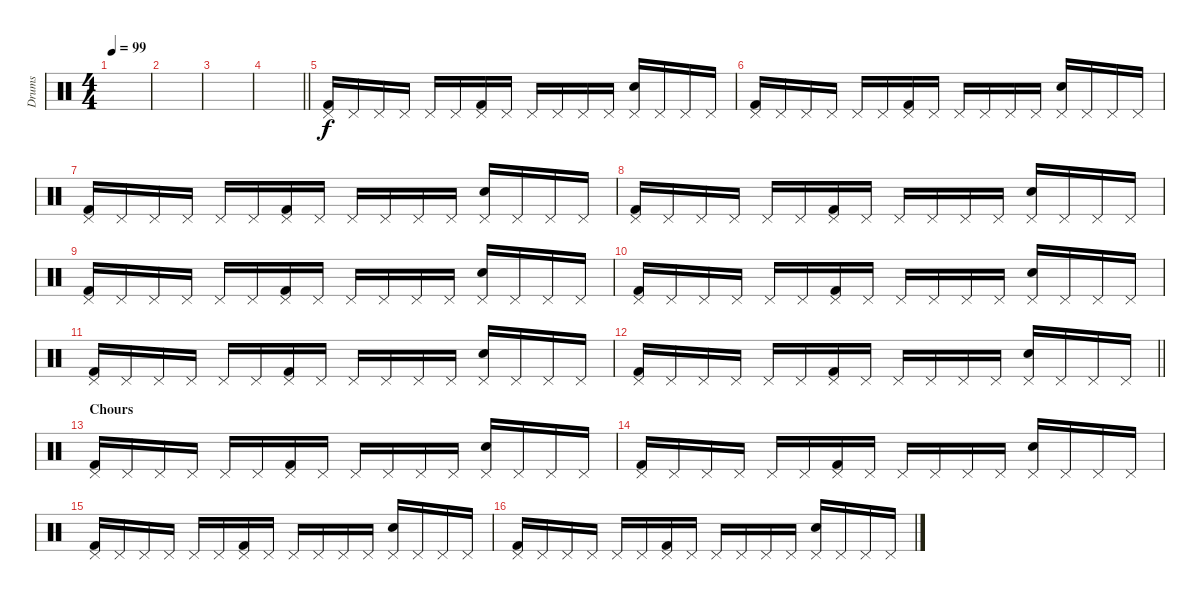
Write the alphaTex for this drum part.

\track ("Drums" "Drums") {instrument percussion}
\staff {score}
\articulation defaults
\ts (4 4)
\tempo 99
\clef neutral
\ks c
|
|
|
\barLineRight lightlight
|
("Pedal Hi-Hat (hit)" "Kick (hit) 2").16 "Pedal Hi-Hat (hit)".16 "Pedal Hi-Hat (hit)".16 "Pedal Hi-Hat (hit)".16 "Pedal Hi-Hat (hit)".16 "Pedal Hi-Hat (hit)".16 ("Pedal Hi-Hat (hit)" "Kick (hit) 2").16 "Pedal Hi-Hat (hit)".16 "Pedal Hi-Hat (hit)".16 "Pedal Hi-Hat (hit)".16 "Pedal Hi-Hat (hit)".16 "Pedal Hi-Hat (hit)".16 ("Pedal Hi-Hat (hit)" "Snare (hit) 2").16 "Pedal Hi-Hat (hit)".16 "Pedal Hi-Hat (hit)".16 "Pedal Hi-Hat (hit)".16 |
("Pedal Hi-Hat (hit)" "Kick (hit) 2").16 "Pedal Hi-Hat (hit)".16 "Pedal Hi-Hat (hit)".16 "Pedal Hi-Hat (hit)".16 "Pedal Hi-Hat (hit)".16 "Pedal Hi-Hat (hit)".16 ("Pedal Hi-Hat (hit)" "Kick (hit) 2").16 "Pedal Hi-Hat (hit)".16 "Pedal Hi-Hat (hit)".16 "Pedal Hi-Hat (hit)".16 "Pedal Hi-Hat (hit)".16 "Pedal Hi-Hat (hit)".16 ("Pedal Hi-Hat (hit)" "Snare (hit) 2").16 "Pedal Hi-Hat (hit)".16 "Pedal Hi-Hat (hit)".16 "Pedal Hi-Hat (hit)".16 |
("Pedal Hi-Hat (hit)" "Kick (hit) 2").16 "Pedal Hi-Hat (hit)".16 "Pedal Hi-Hat (hit)".16 "Pedal Hi-Hat (hit)".16 "Pedal Hi-Hat (hit)".16 "Pedal Hi-Hat (hit)".16 ("Pedal Hi-Hat (hit)" "Kick (hit) 2").16 "Pedal Hi-Hat (hit)".16 "Pedal Hi-Hat (hit)".16 "Pedal Hi-Hat (hit)".16 "Pedal Hi-Hat (hit)".16 "Pedal Hi-Hat (hit)".16 ("Pedal Hi-Hat (hit)" "Snare (hit) 2").16 "Pedal Hi-Hat (hit)".16 "Pedal Hi-Hat (hit)".16 "Pedal Hi-Hat (hit)".16 |
("Pedal Hi-Hat (hit)" "Kick (hit) 2").16 "Pedal Hi-Hat (hit)".16 "Pedal Hi-Hat (hit)".16 "Pedal Hi-Hat (hit)".16 "Pedal Hi-Hat (hit)".16 "Pedal Hi-Hat (hit)".16 ("Pedal Hi-Hat (hit)" "Kick (hit) 2").16 "Pedal Hi-Hat (hit)".16 "Pedal Hi-Hat (hit)".16 "Pedal Hi-Hat (hit)".16 "Pedal Hi-Hat (hit)".16 "Pedal Hi-Hat (hit)".16 ("Pedal Hi-Hat (hit)" "Snare (hit) 2").16 "Pedal Hi-Hat (hit)".16 "Pedal Hi-Hat (hit)".16 "Pedal Hi-Hat (hit)".16 |
("Pedal Hi-Hat (hit)" "Kick (hit) 2").16 "Pedal Hi-Hat (hit)".16 "Pedal Hi-Hat (hit)".16 "Pedal Hi-Hat (hit)".16 "Pedal Hi-Hat (hit)".16 "Pedal Hi-Hat (hit)".16 ("Pedal Hi-Hat (hit)" "Kick (hit) 2").16 "Pedal Hi-Hat (hit)".16 "Pedal Hi-Hat (hit)".16 "Pedal Hi-Hat (hit)".16 "Pedal Hi-Hat (hit)".16 "Pedal Hi-Hat (hit)".16 ("Pedal Hi-Hat (hit)" "Snare (hit) 2").16 "Pedal Hi-Hat (hit)".16 "Pedal Hi-Hat (hit)".16 "Pedal Hi-Hat (hit)".16 |
("Pedal Hi-Hat (hit)" "Kick (hit) 2").16 "Pedal Hi-Hat (hit)".16 "Pedal Hi-Hat (hit)".16 "Pedal Hi-Hat (hit)".16 "Pedal Hi-Hat (hit)".16 "Pedal Hi-Hat (hit)".16 ("Pedal Hi-Hat (hit)" "Kick (hit) 2").16 "Pedal Hi-Hat (hit)".16 "Pedal Hi-Hat (hit)".16 "Pedal Hi-Hat (hit)".16 "Pedal Hi-Hat (hit)".16 "Pedal Hi-Hat (hit)".16 ("Pedal Hi-Hat (hit)" "Snare (hit) 2").16 "Pedal Hi-Hat (hit)".16 "Pedal Hi-Hat (hit)".16 "Pedal Hi-Hat (hit)".16 |
("Pedal Hi-Hat (hit)" "Kick (hit) 2").16 "Pedal Hi-Hat (hit)".16 "Pedal Hi-Hat (hit)".16 "Pedal Hi-Hat (hit)".16 "Pedal Hi-Hat (hit)".16 "Pedal Hi-Hat (hit)".16 ("Pedal Hi-Hat (hit)" "Kick (hit) 2").16 "Pedal Hi-Hat (hit)".16 "Pedal Hi-Hat (hit)".16 "Pedal Hi-Hat (hit)".16 "Pedal Hi-Hat (hit)".16 "Pedal Hi-Hat (hit)".16 ("Pedal Hi-Hat (hit)" "Snare (hit) 2").16 "Pedal Hi-Hat (hit)".16 "Pedal Hi-Hat (hit)".16 "Pedal Hi-Hat (hit)".16 |
\barLineRight lightlight
("Pedal Hi-Hat (hit)" "Kick (hit) 2").16 "Pedal Hi-Hat (hit)".16 "Pedal Hi-Hat (hit)".16 "Pedal Hi-Hat (hit)".16 "Pedal Hi-Hat (hit)".16 "Pedal Hi-Hat (hit)".16 ("Pedal Hi-Hat (hit)" "Kick (hit) 2").16 "Pedal Hi-Hat (hit)".16 "Pedal Hi-Hat (hit)".16 "Pedal Hi-Hat (hit)".16 "Pedal Hi-Hat (hit)".16 "Pedal Hi-Hat (hit)".16 ("Pedal Hi-Hat (hit)" "Snare (hit) 2").16 "Pedal Hi-Hat (hit)".16 "Pedal Hi-Hat (hit)".16 "Pedal Hi-Hat (hit)".16 |
\section ("" "Chours")
("Pedal Hi-Hat (hit)" "Kick (hit) 2").16 "Pedal Hi-Hat (hit)".16 "Pedal Hi-Hat (hit)".16 "Pedal Hi-Hat (hit)".16 "Pedal Hi-Hat (hit)".16 "Pedal Hi-Hat (hit)".16 ("Pedal Hi-Hat (hit)" "Kick (hit) 2").16 "Pedal Hi-Hat (hit)".16 "Pedal Hi-Hat (hit)".16 "Pedal Hi-Hat (hit)".16 "Pedal Hi-Hat (hit)".16 "Pedal Hi-Hat (hit)".16 ("Pedal Hi-Hat (hit)" "Snare (hit) 2").16 "Pedal Hi-Hat (hit)".16 "Pedal Hi-Hat (hit)".16 "Pedal Hi-Hat (hit)".16 |
("Pedal Hi-Hat (hit)" "Kick (hit) 2").16 "Pedal Hi-Hat (hit)".16 "Pedal Hi-Hat (hit)".16 "Pedal Hi-Hat (hit)".16 "Pedal Hi-Hat (hit)".16 "Pedal Hi-Hat (hit)".16 ("Pedal Hi-Hat (hit)" "Kick (hit) 2").16 "Pedal Hi-Hat (hit)".16 "Pedal Hi-Hat (hit)".16 "Pedal Hi-Hat (hit)".16 "Pedal Hi-Hat (hit)".16 "Pedal Hi-Hat (hit)".16 ("Pedal Hi-Hat (hit)" "Snare (hit) 2").16 "Pedal Hi-Hat (hit)".16 "Pedal Hi-Hat (hit)".16 "Pedal Hi-Hat (hit)".16 |
("Pedal Hi-Hat (hit)" "Kick (hit) 2").16 "Pedal Hi-Hat (hit)".16 "Pedal Hi-Hat (hit)".16 "Pedal Hi-Hat (hit)".16 "Pedal Hi-Hat (hit)".16 "Pedal Hi-Hat (hit)".16 ("Pedal Hi-Hat (hit)" "Kick (hit) 2").16 "Pedal Hi-Hat (hit)".16 "Pedal Hi-Hat (hit)".16 "Pedal Hi-Hat (hit)".16 "Pedal Hi-Hat (hit)".16 "Pedal Hi-Hat (hit)".16 ("Pedal Hi-Hat (hit)" "Snare (hit) 2").16 "Pedal Hi-Hat (hit)".16 "Pedal Hi-Hat (hit)".16 "Pedal Hi-Hat (hit)".16 |
("Pedal Hi-Hat (hit)" "Kick (hit) 2").16 "Pedal Hi-Hat (hit)".16 "Pedal Hi-Hat (hit)".16 "Pedal Hi-Hat (hit)".16 "Pedal Hi-Hat (hit)".16 "Pedal Hi-Hat (hit)".16 ("Pedal Hi-Hat (hit)" "Kick (hit) 2").16 "Pedal Hi-Hat (hit)".16 "Pedal Hi-Hat (hit)".16 "Pedal Hi-Hat (hit)".16 "Pedal Hi-Hat (hit)".16 "Pedal Hi-Hat (hit)".16 ("Pedal Hi-Hat (hit)" "Snare (hit) 2").16 "Pedal Hi-Hat (hit)".16 "Pedal Hi-Hat (hit)".16 "Pedal Hi-Hat (hit)".16
